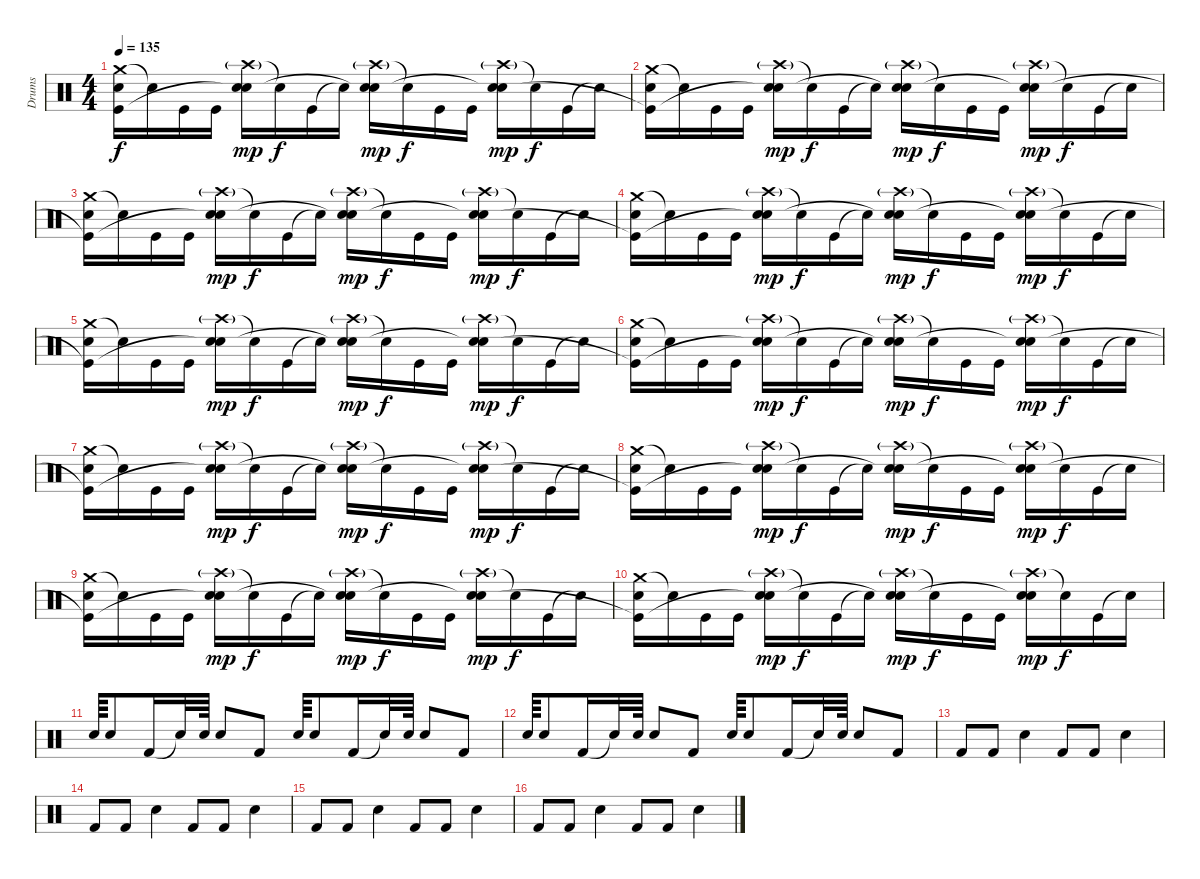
\track ("Drums" "Drums") {instrument percussion}
\staff {score}
\articulation defaults
\ts (4 4)
\tempo 135
\clef neutral
\ks c
("Crash medium (hit)" "Electric Snare (hit)" "Kick (hit)"{t}).16{dy f} "Snare (hit)"{t}.16 "Kick (hit)".16 "Kick (hit)".16 ("Crash high (hit)"{g} "Electric Snare (hit)" "Snare (hit)"{t}).16{dy mp} "Snare (hit)"{t}.16{dy f} "Kick (hit)".16 "Snare (hit)"{t}.16 ("Crash high (hit)"{g} "Electric Snare (hit)" "Snare (hit)"{t}).16{dy mp} "Snare (hit)"{t}.16{dy f} "Kick (hit)".16 "Kick (hit)".16 ("Crash high (hit)"{g} "Electric Snare (hit)" "Snare (hit)"{t}).16{dy mp} "Snare (hit)"{t}.16{dy f} "Kick (hit)".16 "Snare (hit)"{t}.16 |
("Crash medium (hit)" "Electric Snare (hit)" "Kick (hit)"{t}).16 "Snare (hit)"{t}.16 "Kick (hit)".16 "Kick (hit)".16 ("Crash high (hit)"{g} "Electric Snare (hit)" "Snare (hit)"{t}).16{dy mp} "Snare (hit)"{t}.16{dy f} "Kick (hit)".16 "Snare (hit)"{t}.16 ("Crash high (hit)"{g} "Electric Snare (hit)" "Snare (hit)"{t}).16{dy mp} "Snare (hit)"{t}.16{dy f} "Kick (hit)".16 "Kick (hit)".16 ("Crash high (hit)"{g} "Electric Snare (hit)" "Snare (hit)"{t}).16{dy mp} "Snare (hit)"{t}.16{dy f} "Kick (hit)".16 "Snare (hit)"{t}.16 |
("Crash medium (hit)" "Electric Snare (hit)" "Kick (hit)"{t}).16 "Snare (hit)"{t}.16 "Kick (hit)".16 "Kick (hit)".16 ("Crash high (hit)"{g} "Electric Snare (hit)" "Snare (hit)"{t}).16{dy mp} "Snare (hit)"{t}.16{dy f} "Kick (hit)".16 "Snare (hit)"{t}.16 ("Crash high (hit)"{g} "Electric Snare (hit)" "Snare (hit)"{t}).16{dy mp} "Snare (hit)"{t}.16{dy f} "Kick (hit)".16 "Kick (hit)".16 ("Crash high (hit)"{g} "Electric Snare (hit)" "Snare (hit)"{t}).16{dy mp} "Snare (hit)"{t}.16{dy f} "Kick (hit)".16 "Snare (hit)"{t}.16 |
("Crash medium (hit)" "Electric Snare (hit)" "Kick (hit)"{t}).16 "Snare (hit)"{t}.16 "Kick (hit)".16 "Kick (hit)".16 ("Crash high (hit)"{g} "Electric Snare (hit)" "Snare (hit)"{t}).16{dy mp} "Snare (hit)"{t}.16{dy f} "Kick (hit)".16 "Snare (hit)"{t}.16 ("Crash high (hit)"{g} "Electric Snare (hit)" "Snare (hit)"{t}).16{dy mp} "Snare (hit)"{t}.16{dy f} "Kick (hit)".16 "Kick (hit)".16 ("Crash high (hit)"{g} "Electric Snare (hit)" "Snare (hit)"{t}).16{dy mp} "Snare (hit)"{t}.16{dy f} "Kick (hit)".16 "Snare (hit)"{t}.16 |
("Crash medium (hit)" "Electric Snare (hit)" "Kick (hit)"{t}).16 "Snare (hit)"{t}.16 "Kick (hit)".16 "Kick (hit)".16 ("Crash high (hit)"{g} "Electric Snare (hit)" "Snare (hit)"{t}).16{dy mp} "Snare (hit)"{t}.16{dy f} "Kick (hit)".16 "Snare (hit)"{t}.16 ("Crash high (hit)"{g} "Electric Snare (hit)" "Snare (hit)"{t}).16{dy mp} "Snare (hit)"{t}.16{dy f} "Kick (hit)".16 "Kick (hit)".16 ("Crash high (hit)"{g} "Electric Snare (hit)" "Snare (hit)"{t}).16{dy mp} "Snare (hit)"{t}.16{dy f} "Kick (hit)".16 "Snare (hit)"{t}.16 |
("Crash medium (hit)" "Electric Snare (hit)" "Kick (hit)"{t}).16 "Snare (hit)"{t}.16 "Kick (hit)".16 "Kick (hit)".16 ("Crash high (hit)"{g} "Electric Snare (hit)" "Snare (hit)"{t}).16{dy mp} "Snare (hit)"{t}.16{dy f} "Kick (hit)".16 "Snare (hit)"{t}.16 ("Crash high (hit)"{g} "Electric Snare (hit)" "Snare (hit)"{t}).16{dy mp} "Snare (hit)"{t}.16{dy f} "Kick (hit)".16 "Kick (hit)".16 ("Crash high (hit)"{g} "Electric Snare (hit)" "Snare (hit)"{t}).16{dy mp} "Snare (hit)"{t}.16{dy f} "Kick (hit)".16 "Snare (hit)"{t}.16 |
("Crash medium (hit)" "Electric Snare (hit)" "Kick (hit)"{t}).16 "Snare (hit)"{t}.16 "Kick (hit)".16 "Kick (hit)".16 ("Crash high (hit)"{g} "Electric Snare (hit)" "Snare (hit)"{t}).16{dy mp} "Snare (hit)"{t}.16{dy f} "Kick (hit)".16 "Snare (hit)"{t}.16 ("Crash high (hit)"{g} "Electric Snare (hit)" "Snare (hit)"{t}).16{dy mp} "Snare (hit)"{t}.16{dy f} "Kick (hit)".16 "Kick (hit)".16 ("Crash high (hit)"{g} "Electric Snare (hit)" "Snare (hit)"{t}).16{dy mp} "Snare (hit)"{t}.16{dy f} "Kick (hit)".16 "Snare (hit)"{t}.16 |
("Crash medium (hit)" "Electric Snare (hit)" "Kick (hit)"{t}).16 "Snare (hit)"{t}.16 "Kick (hit)".16 "Kick (hit)".16 ("Crash high (hit)"{g} "Electric Snare (hit)" "Snare (hit)"{t}).16{dy mp} "Snare (hit)"{t}.16{dy f} "Kick (hit)".16 "Snare (hit)"{t}.16 ("Crash high (hit)"{g} "Electric Snare (hit)" "Snare (hit)"{t}).16{dy mp} "Snare (hit)"{t}.16{dy f} "Kick (hit)".16 "Kick (hit)".16 ("Crash high (hit)"{g} "Electric Snare (hit)" "Snare (hit)"{t}).16{dy mp} "Snare (hit)"{t}.16{dy f} "Kick (hit)".16 "Snare (hit)"{t}.16 |
("Crash medium (hit)" "Electric Snare (hit)" "Kick (hit)"{t}).16 "Snare (hit)"{t}.16 "Kick (hit)".16 "Kick (hit)".16 ("Crash high (hit)"{g} "Electric Snare (hit)" "Snare (hit)"{t}).16{dy mp} "Snare (hit)"{t}.16{dy f} "Kick (hit)".16 "Snare (hit)"{t}.16 ("Crash high (hit)"{g} "Electric Snare (hit)" "Snare (hit)"{t}).16{dy mp} "Snare (hit)"{t}.16{dy f} "Kick (hit)".16 "Kick (hit)".16 ("Crash high (hit)"{g} "Electric Snare (hit)" "Snare (hit)"{t}).16{dy mp} "Snare (hit)"{t}.16{dy f} "Kick (hit)".16 "Snare (hit)"{t}.16 |
("Crash medium (hit)" "Electric Snare (hit)" "Kick (hit)"{t}).16 "Snare (hit)"{t}.16 "Kick (hit)".16 "Kick (hit)".16 ("Crash high (hit)"{g} "Electric Snare (hit)" "Snare (hit)"{t}).16{dy mp} "Snare (hit)"{t}.16{dy f} "Kick (hit)".16 "Snare (hit)"{t}.16 ("Crash high (hit)"{g} "Electric Snare (hit)" "Snare (hit)"{t}).16{dy mp} "Snare (hit)"{t}.16{dy f} "Kick (hit)".16 "Kick (hit)".16 ("Crash high (hit)"{g} "Electric Snare (hit)" "Snare (hit)"{t}).16{dy mp} "Snare (hit)"{t}.16{dy f} "Kick (hit)".16 "Snare (hit)"{t}.16 |
"Electric Snare (hit)".64 "Electric Snare (hit)".8 "Kick (hit) 2".16 "Snare (hit)"{t}.32 "Electric Snare (hit)".64 "Electric Snare (hit)".8 "Kick (hit) 2".8 "Electric Snare (hit)".64 "Electric Snare (hit)".8 "Kick (hit) 2".16 "Snare (hit)"{t}.32 "Electric Snare (hit)".64 "Electric Snare (hit)".8 "Kick (hit) 2".8 |
"Electric Snare (hit)".64 "Electric Snare (hit)".8 "Kick (hit) 2".16 "Snare (hit)"{t}.32 "Electric Snare (hit)".64 "Electric Snare (hit)".8 "Kick (hit) 2".8 "Electric Snare (hit)".64 "Electric Snare (hit)".8 "Kick (hit) 2".16 "Snare (hit)"{t}.32 "Electric Snare (hit)".64 "Electric Snare (hit)".8 "Kick (hit) 2".8 |
"Kick (hit) 2".8 "Kick (hit) 2".8 "Snare (hit) 2".4 "Kick (hit) 2".8 "Kick (hit) 2".8 "Snare (hit) 2".4 |
"Kick (hit) 2".8 "Kick (hit) 2".8 "Snare (hit) 2".4 "Kick (hit) 2".8 "Kick (hit) 2".8 "Snare (hit) 2".4 |
"Kick (hit) 2".8 "Kick (hit) 2".8 "Snare (hit) 2".4 "Kick (hit) 2".8 "Kick (hit) 2".8 "Snare (hit) 2".4 |
"Kick (hit) 2".8 "Kick (hit) 2".8 "Snare (hit) 2".4 "Kick (hit) 2".8 "Kick (hit) 2".8 "Snare (hit) 2".4
